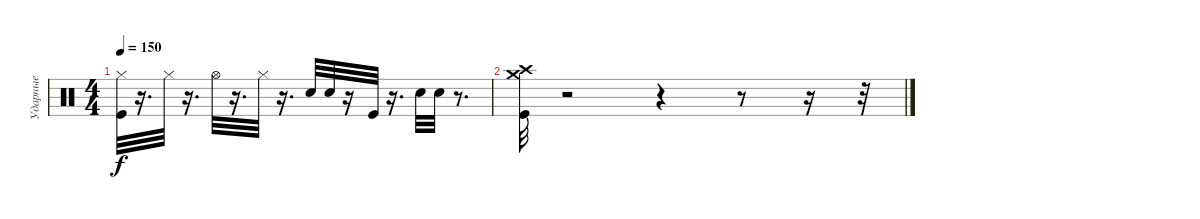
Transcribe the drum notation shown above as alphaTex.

\track ("Ударные" "Ударные") {instrument percussion}
\staff {score}
\articulation defaults
\ts (4 4)
\tempo 150
\clef neutral
\ks c
("Hi-Hat (closed)" "Kick (hit)").32{dy f} r.16{d} "Hi-Hat (closed)".32 r.16{d} "Hi-Hat (open)".32 r.16{d} "Hi-Hat (closed)".32 r.16{d} "Snare (hit) 2".32 "Snare (hit) 2".32 r.16 "Kick (hit)".32 r.16{d} "Snare (hit) 2".32 "Snare (hit) 2".32 r.8{d} |
("Crash medium (hit)" "Kick (hit)" "Crash high (hit)").32 r.2 r.4 r.8 r.16 r.32
